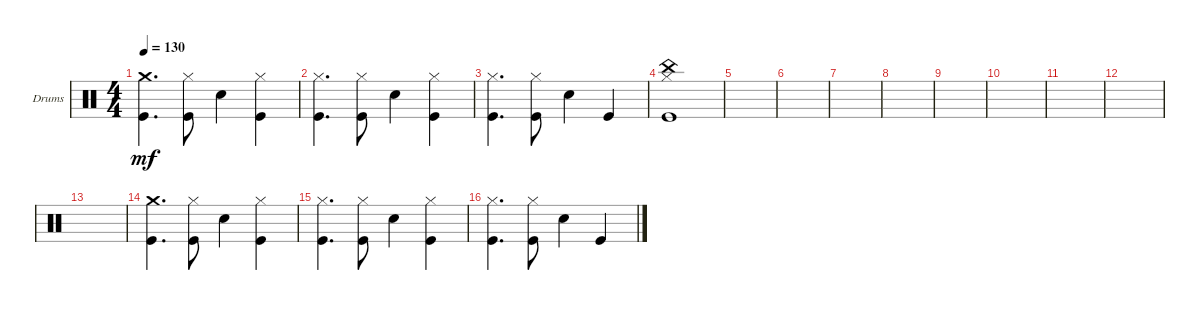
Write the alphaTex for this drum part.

\defaultSystemsLayout 4
\bracketExtendMode groupsimilarinstruments
\firstSystemTrackNameOrientation horizontal
\otherSystemsTrackNameOrientation horizontal
\track ("Drumkit" "Drums") {instrument percussion}
\staff {score}
\articulation defaults
\ts (4 4)
\tempo 130
\clef neutral
\ks c
("Kick (hit)" "Crash medium (hit)").4{d dy mf} ("Kick (hit)" "Hi-Hat (closed)").8 "Snare (hit) 2".4 ("Kick (hit)" "Hi-Hat (closed)").4 |
("Kick (hit)" "Hi-Hat (closed)").4{d} ("Kick (hit)" "Hi-Hat (closed)").8 "Snare (hit) 2".4 ("Kick (hit)" "Hi-Hat (closed)").4 |
("Kick (hit)" "Hi-Hat (closed)").4{d} ("Kick (hit)" "Hi-Hat (closed)").8 "Snare (hit) 2".4 "Kick (hit)".4 |
("Kick (hit)" "Hi-Hat (closed)" "China (hit)").1 |
|
|
|
|
|
|
|
|
|
("Kick (hit)" "Crash medium (hit)").4{d} ("Kick (hit)" "Hi-Hat (closed)").8 "Snare (hit) 2".4 ("Kick (hit)" "Hi-Hat (closed)").4 |
("Kick (hit)" "Hi-Hat (closed)").4{d} ("Kick (hit)" "Hi-Hat (closed)").8 "Snare (hit) 2".4 ("Kick (hit)" "Hi-Hat (closed)").4 |
("Kick (hit)" "Hi-Hat (closed)").4{d} ("Kick (hit)" "Hi-Hat (closed)").8 "Snare (hit) 2".4 "Kick (hit)".4
